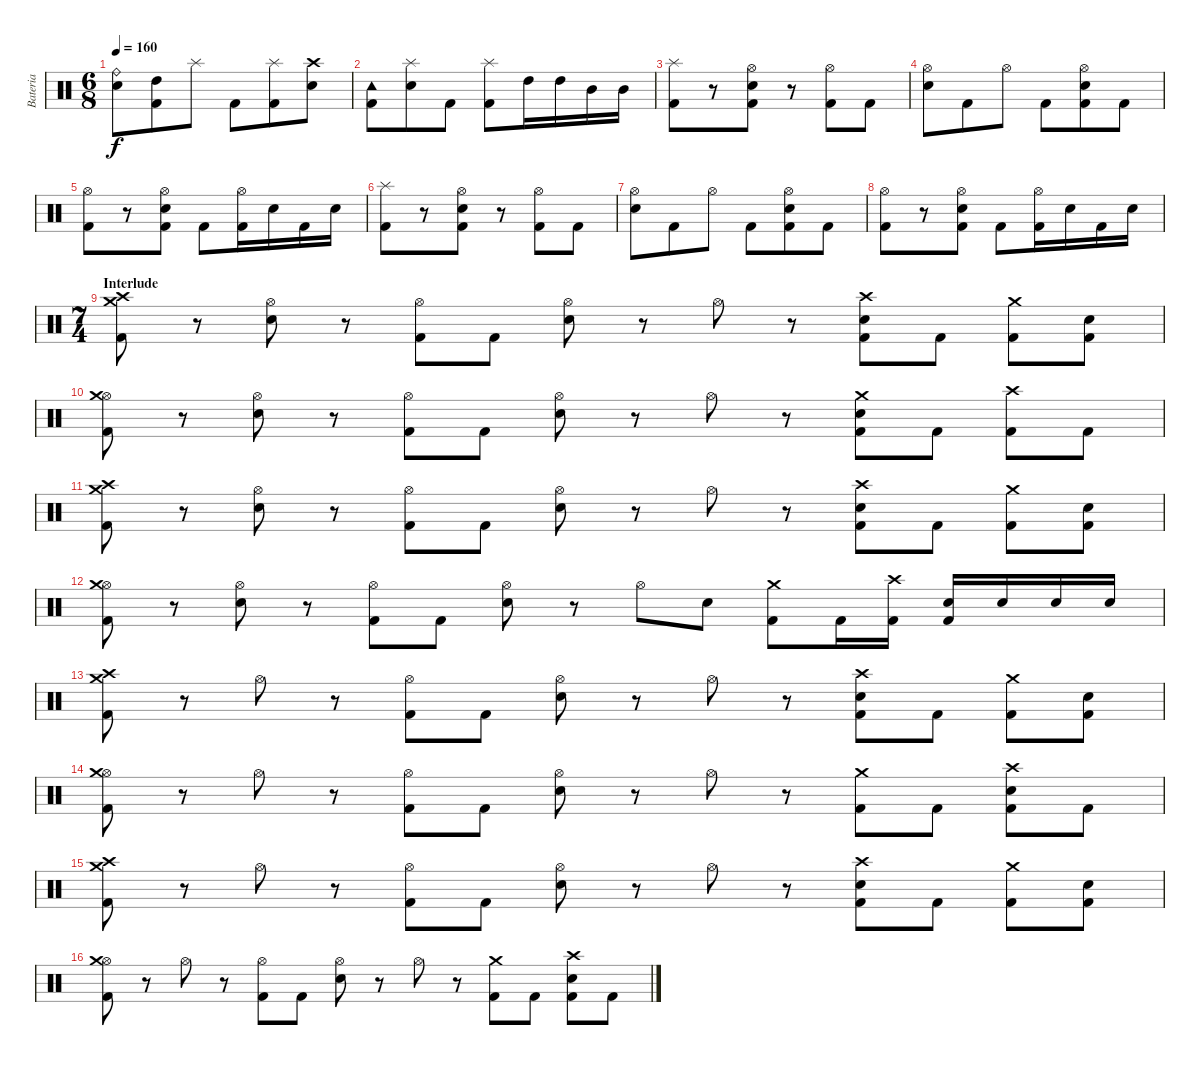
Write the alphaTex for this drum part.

\track ("Bateria" "Bateria") {instrument percussion}
\staff {score}
\articulation defaults
\ts (6 8)
\tempo 160
\clef neutral
\ks c
("Ride (bell)" "Electric Snare (hit)").8{dy f} ("High Tom (hit)" "Kick (hit) 2").8 "Splash (hit)".8 "Kick (hit) 2".8 ("Splash (hit)" "Kick (hit) 2").8 ("Crash high (hit)" "Electric Snare (hit)").8 |
("Tambourine (hit)" "Kick (hit) 2").8 ("Splash (hit)" "Electric Snare (hit)").8 "Kick (hit) 2".8 ("Splash (hit)" "Kick (hit) 2").8 "High Tom (hit)".16 "High Tom (hit)".16 "Mid Tom (hit)".16 "Mid Tom (hit)".16 |
("Splash (hit)" "Kick (hit) 2").8 r.8 ("Hi-Hat (open)" "Electric Snare (hit)" "Kick (hit) 2").8 r.8 ("Hi-Hat (open)" "Kick (hit) 2").8 "Kick (hit) 2".8 |
("Hi-Hat (open)" "Electric Snare (hit)").8 "Kick (hit) 2".8 "Hi-Hat (open)".8 "Kick (hit) 2".8 ("Hi-Hat (open)" "Electric Snare (hit)" "Kick (hit) 2").8 "Kick (hit) 2".8 |
("Hi-Hat (open)" "Kick (hit) 2").8 r.8 ("Hi-Hat (open)" "Electric Snare (hit)" "Kick (hit) 2").8 "Kick (hit) 2".8 ("Hi-Hat (open)" "Kick (hit) 2").16 "Electric Snare (hit)".16 "Kick (hit) 2".16 "Electric Snare (hit)".16 |
("Splash (hit)" "Kick (hit) 2").8 r.8 ("Hi-Hat (open)" "Electric Snare (hit)" "Kick (hit) 2").8 r.8 ("Hi-Hat (open)" "Kick (hit) 2").8 "Kick (hit) 2".8 |
("Hi-Hat (open)" "Electric Snare (hit)").8 "Kick (hit) 2".8 "Hi-Hat (open)".8 "Kick (hit) 2".8 ("Hi-Hat (open)" "Electric Snare (hit)" "Kick (hit) 2").8 "Kick (hit) 2".8 |
("Hi-Hat (open)" "Kick (hit) 2").8 r.8 ("Hi-Hat (open)" "Electric Snare (hit)" "Kick (hit) 2").8 "Kick (hit) 2".8 ("Hi-Hat (open)" "Kick (hit) 2").16 "Electric Snare (hit)".16 "Kick (hit) 2".16 "Electric Snare (hit)".16 |
\ts (7 4)
\section ("" "Interlude")
("Crash medium (hit)" "Crash high (hit)" "Kick (hit) 2").8 r.8 ("Hi-Hat (open)" "Electric Snare (hit)").8 r.8 ("Hi-Hat (open)" "Kick (hit) 2").8 "Kick (hit) 2".8 ("Hi-Hat (open)" "Electric Snare (hit)").8 r.8 "Hi-Hat (open)".8 r.8 ("Crash high (hit)" "Electric Snare (hit)" "Kick (hit) 2").8 "Kick (hit) 2".8 ("Crash medium (hit)" "Kick (hit) 2").8 ("Electric Snare (hit)" "Kick (hit) 2").8 |
("Hi-Hat (open)" "Crash medium (hit)" "Kick (hit) 2").8 r.8 ("Hi-Hat (open)" "Electric Snare (hit)").8 r.8 ("Hi-Hat (open)" "Kick (hit) 2").8 "Kick (hit) 2".8 ("Hi-Hat (open)" "Electric Snare (hit)").8 r.8 "Hi-Hat (open)".8 r.8 ("Crash medium (hit)" "Electric Snare (hit)" "Kick (hit) 2").8 "Kick (hit) 2".8 ("Crash high (hit)" "Kick (hit) 2").8 "Kick (hit) 2".8 |
("Crash medium (hit)" "Crash high (hit)" "Kick (hit) 2").8 r.8 ("Hi-Hat (open)" "Electric Snare (hit)").8 r.8 ("Hi-Hat (open)" "Kick (hit) 2").8 "Kick (hit) 2".8 ("Hi-Hat (open)" "Electric Snare (hit)").8 r.8 "Hi-Hat (open)".8 r.8 ("Crash high (hit)" "Electric Snare (hit)" "Kick (hit) 2").8 "Kick (hit) 2".8 ("Crash medium (hit)" "Kick (hit) 2").8 ("Electric Snare (hit)" "Kick (hit) 2").8 |
("Hi-Hat (open)" "Crash medium (hit)" "Kick (hit) 2").8 r.8 ("Hi-Hat (open)" "Electric Snare (hit)").8 r.8 ("Hi-Hat (open)" "Kick (hit) 2").8 "Kick (hit) 2".8 ("Hi-Hat (open)" "Electric Snare (hit)").8 r.8 "Hi-Hat (open)".8 "Electric Snare (hit)".8 ("Crash medium (hit)" "Kick (hit) 2").8 "Kick (hit) 2".16 ("Crash high (hit)" "Kick (hit) 2").16 ("Electric Snare (hit)" "Kick (hit) 2").16 "Electric Snare (hit)".16 "Electric Snare (hit)".16 "Electric Snare (hit)".16 |
("Crash medium (hit)" "Crash high (hit)" "Kick (hit) 2").8 r.8 "Hi-Hat (open)".8 r.8 ("Hi-Hat (open)" "Kick (hit) 2").8 "Kick (hit) 2".8 ("Hi-Hat (open)" "Electric Snare (hit)").8 r.8 "Hi-Hat (open)".8 r.8 ("Crash high (hit)" "Electric Snare (hit)" "Kick (hit) 2").8 "Kick (hit) 2".8 ("Crash medium (hit)" "Kick (hit) 2").8 ("Electric Snare (hit)" "Kick (hit) 2").8 |
("Hi-Hat (open)" "Crash medium (hit)" "Kick (hit) 2").8 r.8 "Hi-Hat (open)".8 r.8 ("Hi-Hat (open)" "Kick (hit) 2").8 "Kick (hit) 2".8 ("Hi-Hat (open)" "Electric Snare (hit)").8 r.8 "Hi-Hat (open)".8 r.8 ("Crash medium (hit)" "Kick (hit) 2").8 "Kick (hit) 2".8 ("Crash high (hit)" "Electric Snare (hit)" "Kick (hit) 2").8 "Kick (hit) 2".8 |
("Crash medium (hit)" "Crash high (hit)" "Kick (hit) 2").8 r.8 "Hi-Hat (open)".8 r.8 ("Hi-Hat (open)" "Kick (hit) 2").8 "Kick (hit) 2".8 ("Hi-Hat (open)" "Electric Snare (hit)").8 r.8 "Hi-Hat (open)".8 r.8 ("Crash high (hit)" "Electric Snare (hit)" "Kick (hit) 2").8 "Kick (hit) 2".8 ("Crash medium (hit)" "Kick (hit) 2").8 ("Electric Snare (hit)" "Kick (hit) 2").8 |
("Hi-Hat (open)" "Crash medium (hit)" "Kick (hit) 2").8 r.8 "Hi-Hat (open)".8 r.8 ("Hi-Hat (open)" "Kick (hit) 2").8 "Kick (hit) 2".8 ("Hi-Hat (open)" "Electric Snare (hit)").8 r.8 "Hi-Hat (open)".8 r.8 ("Crash medium (hit)" "Kick (hit) 2").8 "Kick (hit) 2".8 ("Crash high (hit)" "Electric Snare (hit)" "Kick (hit) 2").8 "Kick (hit) 2".8
